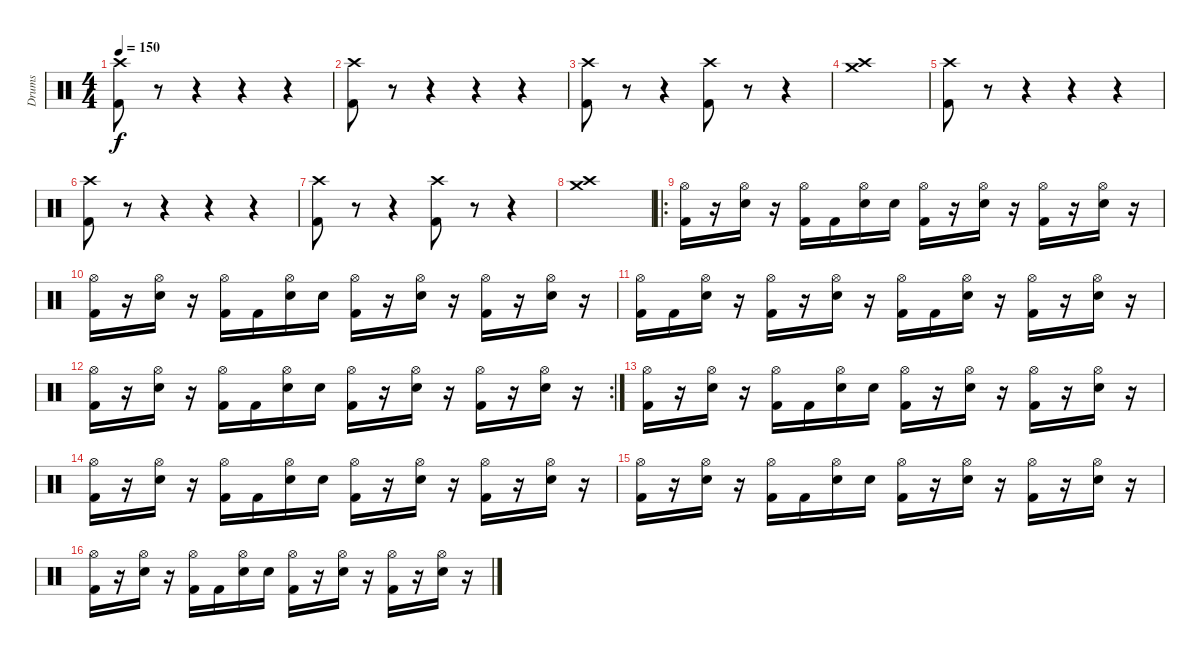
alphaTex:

\track ("Drums" "Drums") {instrument percussion}
\staff {score}
\articulation defaults
\ts (4 4)
\tempo 150
\clef neutral
\ks c
("Crash high (hit)" "Kick (hit) 2").8{dy f} r.8 r.4 r.4 r.4 |
("Crash high (hit)" "Kick (hit) 2").8 r.8 r.4 r.4 r.4 |
("Crash high (hit)" "Kick (hit) 2").8 r.8 r.4 ("Crash high (hit)" "Kick (hit) 2").8 r.8 r.4 |
("Crash high (hit)" "Crash medium (hit)").1 |
("Crash high (hit)" "Kick (hit) 2").8 r.8 r.4 r.4 r.4 |
("Crash high (hit)" "Kick (hit) 2").8 r.8 r.4 r.4 r.4 |
("Crash high (hit)" "Kick (hit) 2").8 r.8 r.4 ("Crash high (hit)" "Kick (hit) 2").8 r.8 r.4 |
("Crash high (hit)" "Crash medium (hit)").1 |
\ro
("Hi-Hat (open)" "Kick (hit) 2").16 r.16 ("Hi-Hat (open)" "Electric Snare (hit)").16 r.16 ("Hi-Hat (open)" "Kick (hit) 2").16 "Kick (hit) 2".16 ("Hi-Hat (open)" "Electric Snare (hit)").16 "Electric Snare (hit)".16 ("Hi-Hat (open)" "Kick (hit) 2").16 r.16 ("Hi-Hat (open)" "Electric Snare (hit)").16 r.16 ("Hi-Hat (open)" "Kick (hit) 2").16 r.16 ("Hi-Hat (open)" "Electric Snare (hit)").16 r.16 |
("Hi-Hat (open)" "Kick (hit) 2").16 r.16 ("Hi-Hat (open)" "Electric Snare (hit)").16 r.16 ("Hi-Hat (open)" "Kick (hit) 2").16 "Kick (hit) 2".16 ("Hi-Hat (open)" "Electric Snare (hit)").16 "Electric Snare (hit)".16 ("Hi-Hat (open)" "Kick (hit) 2").16 r.16 ("Hi-Hat (open)" "Electric Snare (hit)").16 r.16 ("Hi-Hat (open)" "Kick (hit) 2").16 r.16 ("Hi-Hat (open)" "Electric Snare (hit)").16 r.16 |
("Hi-Hat (open)" "Kick (hit) 2").16 "Kick (hit) 2".16 ("Hi-Hat (open)" "Electric Snare (hit)").16 r.16 ("Hi-Hat (open)" "Kick (hit) 2").16 r.16 ("Hi-Hat (open)" "Electric Snare (hit)").16 r.16 ("Hi-Hat (open)" "Kick (hit) 2").16 "Kick (hit) 2".16 ("Hi-Hat (open)" "Electric Snare (hit)").16 r.16 ("Hi-Hat (open)" "Kick (hit) 2").16 r.16 ("Hi-Hat (open)" "Electric Snare (hit)").16 r.16 |
\rc 2
("Hi-Hat (open)" "Kick (hit) 2").16 r.16 ("Hi-Hat (open)" "Electric Snare (hit)").16 r.16 ("Hi-Hat (open)" "Kick (hit) 2").16 "Kick (hit) 2".16 ("Hi-Hat (open)" "Electric Snare (hit)").16 "Electric Snare (hit)".16 ("Hi-Hat (open)" "Kick (hit) 2").16 r.16 ("Hi-Hat (open)" "Electric Snare (hit)").16 r.16 ("Hi-Hat (open)" "Kick (hit) 2").16 r.16 ("Hi-Hat (open)" "Electric Snare (hit)").16 r.16 |
("Hi-Hat (open)" "Kick (hit) 2").16 r.16 ("Hi-Hat (open)" "Electric Snare (hit)").16 r.16 ("Hi-Hat (open)" "Kick (hit) 2").16 "Kick (hit) 2".16 ("Hi-Hat (open)" "Electric Snare (hit)").16 "Electric Snare (hit)".16 ("Hi-Hat (open)" "Kick (hit) 2").16 r.16 ("Hi-Hat (open)" "Electric Snare (hit)").16 r.16 ("Hi-Hat (open)" "Kick (hit) 2").16 r.16 ("Hi-Hat (open)" "Electric Snare (hit)").16 r.16 |
("Hi-Hat (open)" "Kick (hit) 2").16 r.16 ("Hi-Hat (open)" "Electric Snare (hit)").16 r.16 ("Hi-Hat (open)" "Kick (hit) 2").16 "Kick (hit) 2".16 ("Hi-Hat (open)" "Electric Snare (hit)").16 "Electric Snare (hit)".16 ("Hi-Hat (open)" "Kick (hit) 2").16 r.16 ("Hi-Hat (open)" "Electric Snare (hit)").16 r.16 ("Hi-Hat (open)" "Kick (hit) 2").16 r.16 ("Hi-Hat (open)" "Electric Snare (hit)").16 r.16 |
("Hi-Hat (open)" "Kick (hit) 2").16 r.16 ("Hi-Hat (open)" "Electric Snare (hit)").16 r.16 ("Hi-Hat (open)" "Kick (hit) 2").16 "Kick (hit) 2".16 ("Hi-Hat (open)" "Electric Snare (hit)").16 "Electric Snare (hit)".16 ("Hi-Hat (open)" "Kick (hit) 2").16 r.16 ("Hi-Hat (open)" "Electric Snare (hit)").16 r.16 ("Hi-Hat (open)" "Kick (hit) 2").16 r.16 ("Hi-Hat (open)" "Electric Snare (hit)").16 r.16 |
("Hi-Hat (open)" "Kick (hit) 2").16 r.16 ("Hi-Hat (open)" "Electric Snare (hit)").16 r.16 ("Hi-Hat (open)" "Kick (hit) 2").16 "Kick (hit) 2".16 ("Hi-Hat (open)" "Electric Snare (hit)").16 "Electric Snare (hit)".16 ("Hi-Hat (open)" "Kick (hit) 2").16 r.16 ("Hi-Hat (open)" "Electric Snare (hit)").16 r.16 ("Hi-Hat (open)" "Kick (hit) 2").16 r.16 ("Hi-Hat (open)" "Electric Snare (hit)").16 r.16
